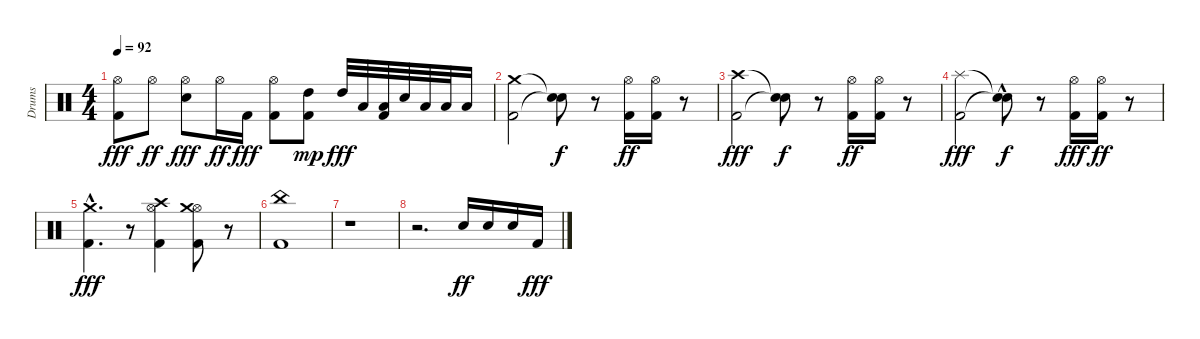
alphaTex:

\track ("Drums" "Drums") {instrument percussion}
\staff {score}
\articulation defaults
\ts (4 4)
\tempo 92
\clef neutral
\ks c
("Kick (hit) 2" "Hi-Hat (open)").8{dy fff} "Hi-Hat (open)".8{dy ff} ("Snare (hit) 2" "Hi-Hat (open)").8{dy fff} "Hi-Hat (open)".16{dy ff} "Kick (hit) 2".16{dy fff} ("Kick (hit) 2" "Hi-Hat (open)").8 ("Kick (hit) 2" "High Tom (hit)").8{dy mp} "High Tom (hit)".32{dy fff} "Low Tom (hit)".32 ("Kick (hit) 2" "Low Floor Tom (hit)").32 "Snare (hit) 2".32 "Low Floor Tom (hit)".32 "Low Tom (hit)".32 "Low Floor Tom (hit)".16 |
("Kick (hit) 2" "Crash medium (hit)").2 ("Snare (hit)"{t} "Snare (hit)"{t}).8{dy f} r.8 ("Kick (hit) 2" "Hi-Hat (open)").16{dy ff} ("Kick (hit) 2" "Hi-Hat (open)").16 r.8 |
("Kick (hit) 2" "Crash high (hit)").2{dy fff} ("Snare (hit)"{t} "Snare (hit)"{t}).8{dy f} r.8 ("Kick (hit) 2" "Hi-Hat (open)").16{dy ff} ("Kick (hit) 2" "Hi-Hat (open)").16 r.8 |
("Kick (hit) 2" "Splash (hit)").2{dy fff} ("Snare (hit)"{hac t} "Snare (hit)"{t}).8{dy f} r.8 ("Kick (hit) 2" "Hi-Hat (open)").16{dy fff} ("Kick (hit) 2" "Hi-Hat (open)").16{dy ff} r.8 |
("Kick (hit) 2"{hac} "Crash medium (hit)").4{d dy fff} r.8 ("Kick (hit) 2" "Hi-Hat (open)" "Crash high (hit)").4 ("Kick (hit) 2" "Hi-Hat (open)" "Crash medium (hit)").8 r.8 |
("China (hit)" "Kick (hit) 2").1 |
r.1 |
r.2{d} "Snare (hit) 2".16{dy ff} "Snare (hit) 2".16 "Snare (hit) 2".16 "Kick (hit) 2".16{dy fff}
